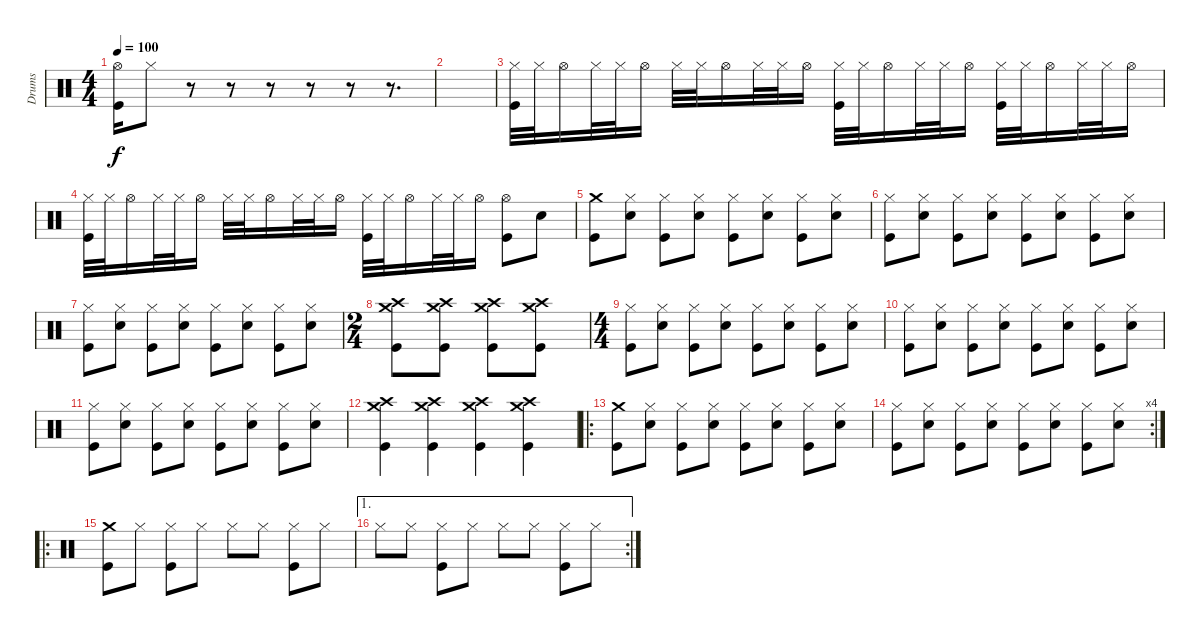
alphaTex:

\track ("Drums" "Drums") {instrument percussion}
\staff {score}
\articulation defaults
\ts (4 4)
\tempo 100
\clef neutral
\ks c
("Hi-Hat (open)" "Kick (hit)").16{dy f} "Hi-Hat (closed)".8 r.8 r.8 r.8 r.8 r.8 r.8{d} |
|
("Hi-Hat (closed)" "Kick (hit)").32 "Hi-Hat (closed)".32{volume 7} "Hi-Hat (open)".16 "Hi-Hat (closed)".32 "Hi-Hat (closed)".32 "Hi-Hat (open)".16 "Hi-Hat (closed)".32 "Hi-Hat (closed)".32 "Hi-Hat (open)".16 "Hi-Hat (closed)".32 "Hi-Hat (closed)".32 "Hi-Hat (open)".16 ("Hi-Hat (closed)" "Kick (hit)").32{volume 14} "Hi-Hat (closed)".32{volume 8} "Hi-Hat (open)".16 "Hi-Hat (closed)".32 "Hi-Hat (closed)".32 "Hi-Hat (open)".16 ("Hi-Hat (closed)" "Kick (hit)").32{volume 14} "Hi-Hat (closed)".32{volume 8} "Hi-Hat (open)".16 "Hi-Hat (closed)".32 "Hi-Hat (closed)".32 "Hi-Hat (open)".16 |
("Hi-Hat (closed)" "Kick (hit)").32{volume 14} "Hi-Hat (closed)".32{volume 8} "Hi-Hat (open)".16 "Hi-Hat (closed)".32 "Hi-Hat (closed)".32 "Hi-Hat (open)".16 "Hi-Hat (closed)".32 "Hi-Hat (closed)".32 "Hi-Hat (open)".16 "Hi-Hat (closed)".32 "Hi-Hat (closed)".32 "Hi-Hat (open)".16 ("Hi-Hat (closed)" "Kick (hit)").32{volume 14} "Hi-Hat (closed)".32{volume 8} "Hi-Hat (open)".16 "Hi-Hat (closed)".32 "Hi-Hat (closed)".32 "Hi-Hat (open)".16 ("Hi-Hat (open)" "Kick (hit)").8{volume 14} "Electric Snare (hit)".8 |
("Crash medium (hit)" "Kick (hit)").8 ("Hi-Hat (closed)" "Electric Snare (hit)").8 ("Hi-Hat (closed)" "Kick (hit)").8 ("Hi-Hat (closed)" "Electric Snare (hit)").8 ("Hi-Hat (closed)" "Kick (hit)").8 ("Hi-Hat (closed)" "Electric Snare (hit)").8 ("Hi-Hat (closed)" "Kick (hit)").8 ("Hi-Hat (closed)" "Electric Snare (hit)").8 |
("Hi-Hat (closed)" "Kick (hit)").8 ("Hi-Hat (closed)" "Electric Snare (hit)").8 ("Hi-Hat (closed)" "Kick (hit)").8 ("Hi-Hat (closed)" "Electric Snare (hit)").8 ("Hi-Hat (closed)" "Kick (hit)").8 ("Hi-Hat (closed)" "Electric Snare (hit)").8 ("Hi-Hat (closed)" "Kick (hit)").8 ("Hi-Hat (closed)" "Electric Snare (hit)").8 |
("Hi-Hat (closed)" "Kick (hit)").8 ("Hi-Hat (closed)" "Electric Snare (hit)").8 ("Hi-Hat (closed)" "Kick (hit)").8 ("Hi-Hat (closed)" "Electric Snare (hit)").8 ("Hi-Hat (closed)" "Kick (hit)").8 ("Hi-Hat (closed)" "Electric Snare (hit)").8 ("Hi-Hat (closed)" "Kick (hit)").8 ("Hi-Hat (closed)" "Electric Snare (hit)").8 |
\ts (2 4)
("Crash high (hit)" "Crash medium (hit)" "Kick (hit)").8 ("Crash high (hit)" "Crash medium (hit)" "Kick (hit)").8 ("Crash high (hit)" "Crash medium (hit)" "Kick (hit)").8 ("Crash high (hit)" "Crash medium (hit)" "Kick (hit)").8 |
\ts (4 4)
("Hi-Hat (closed)" "Kick (hit)").8 ("Hi-Hat (closed)" "Electric Snare (hit)").8 ("Hi-Hat (closed)" "Kick (hit)").8 ("Hi-Hat (closed)" "Electric Snare (hit)").8 ("Hi-Hat (closed)" "Kick (hit)").8 ("Hi-Hat (closed)" "Electric Snare (hit)").8 ("Hi-Hat (closed)" "Kick (hit)").8 ("Hi-Hat (closed)" "Electric Snare (hit)").8 |
("Hi-Hat (closed)" "Kick (hit)").8 ("Hi-Hat (closed)" "Electric Snare (hit)").8 ("Hi-Hat (closed)" "Kick (hit)").8 ("Hi-Hat (closed)" "Electric Snare (hit)").8 ("Hi-Hat (closed)" "Kick (hit)").8 ("Hi-Hat (closed)" "Electric Snare (hit)").8 ("Hi-Hat (closed)" "Kick (hit)").8 ("Hi-Hat (closed)" "Electric Snare (hit)").8 |
("Hi-Hat (closed)" "Kick (hit)").8 ("Hi-Hat (closed)" "Electric Snare (hit)").8 ("Hi-Hat (closed)" "Kick (hit)").8 ("Hi-Hat (closed)" "Electric Snare (hit)").8 ("Hi-Hat (closed)" "Kick (hit)").8 ("Hi-Hat (closed)" "Electric Snare (hit)").8 ("Hi-Hat (closed)" "Kick (hit)").8 ("Hi-Hat (closed)" "Electric Snare (hit)").8 |
("Crash high (hit)" "Crash medium (hit)" "Kick (hit)").4 ("Crash high (hit)" "Crash medium (hit)" "Kick (hit)").4 ("Crash high (hit)" "Crash medium (hit)" "Kick (hit)").4 ("Crash high (hit)" "Crash medium (hit)" "Kick (hit)").4 |
\ro
("Crash medium (hit)" "Kick (hit)").8 ("Hi-Hat (closed)" "Electric Snare (hit)").8 ("Hi-Hat (closed)" "Kick (hit)").8 ("Hi-Hat (closed)" "Electric Snare (hit)").8 ("Hi-Hat (closed)" "Kick (hit)").8 ("Hi-Hat (closed)" "Electric Snare (hit)").8 ("Hi-Hat (closed)" "Kick (hit)").8 ("Hi-Hat (closed)" "Electric Snare (hit)").8 |
\rc 4
("Hi-Hat (closed)" "Kick (hit)").8 ("Hi-Hat (closed)" "Electric Snare (hit)").8 ("Hi-Hat (closed)" "Kick (hit)").8 ("Hi-Hat (closed)" "Electric Snare (hit)").8 ("Hi-Hat (closed)" "Kick (hit)").8 ("Hi-Hat (closed)" "Electric Snare (hit)").8 ("Hi-Hat (closed)" "Kick (hit)").8 ("Hi-Hat (closed)" "Electric Snare (hit)").8 |
\ro
("Crash medium (hit)" "Kick (hit)").8 "Hi-Hat (closed)".8 ("Hi-Hat (closed)" "Kick (hit)").8 "Hi-Hat (closed)".8 "Hi-Hat (closed)".8 "Hi-Hat (closed)".8 ("Hi-Hat (closed)" "Kick (hit)").8 "Hi-Hat (closed)".8 |
\ae 1
\rc 2 "Hi-Hat (closed)".8 "Hi-Hat (closed)".8
("Hi-Hat (closed)" "Kick (hit)").8 "Hi-Hat (closed)".8 "Hi-Hat (closed)".8 "Hi-Hat (closed)".8 ("Hi-Hat (closed)" "Kick (hit)").8 "Hi-Hat (closed)".8
